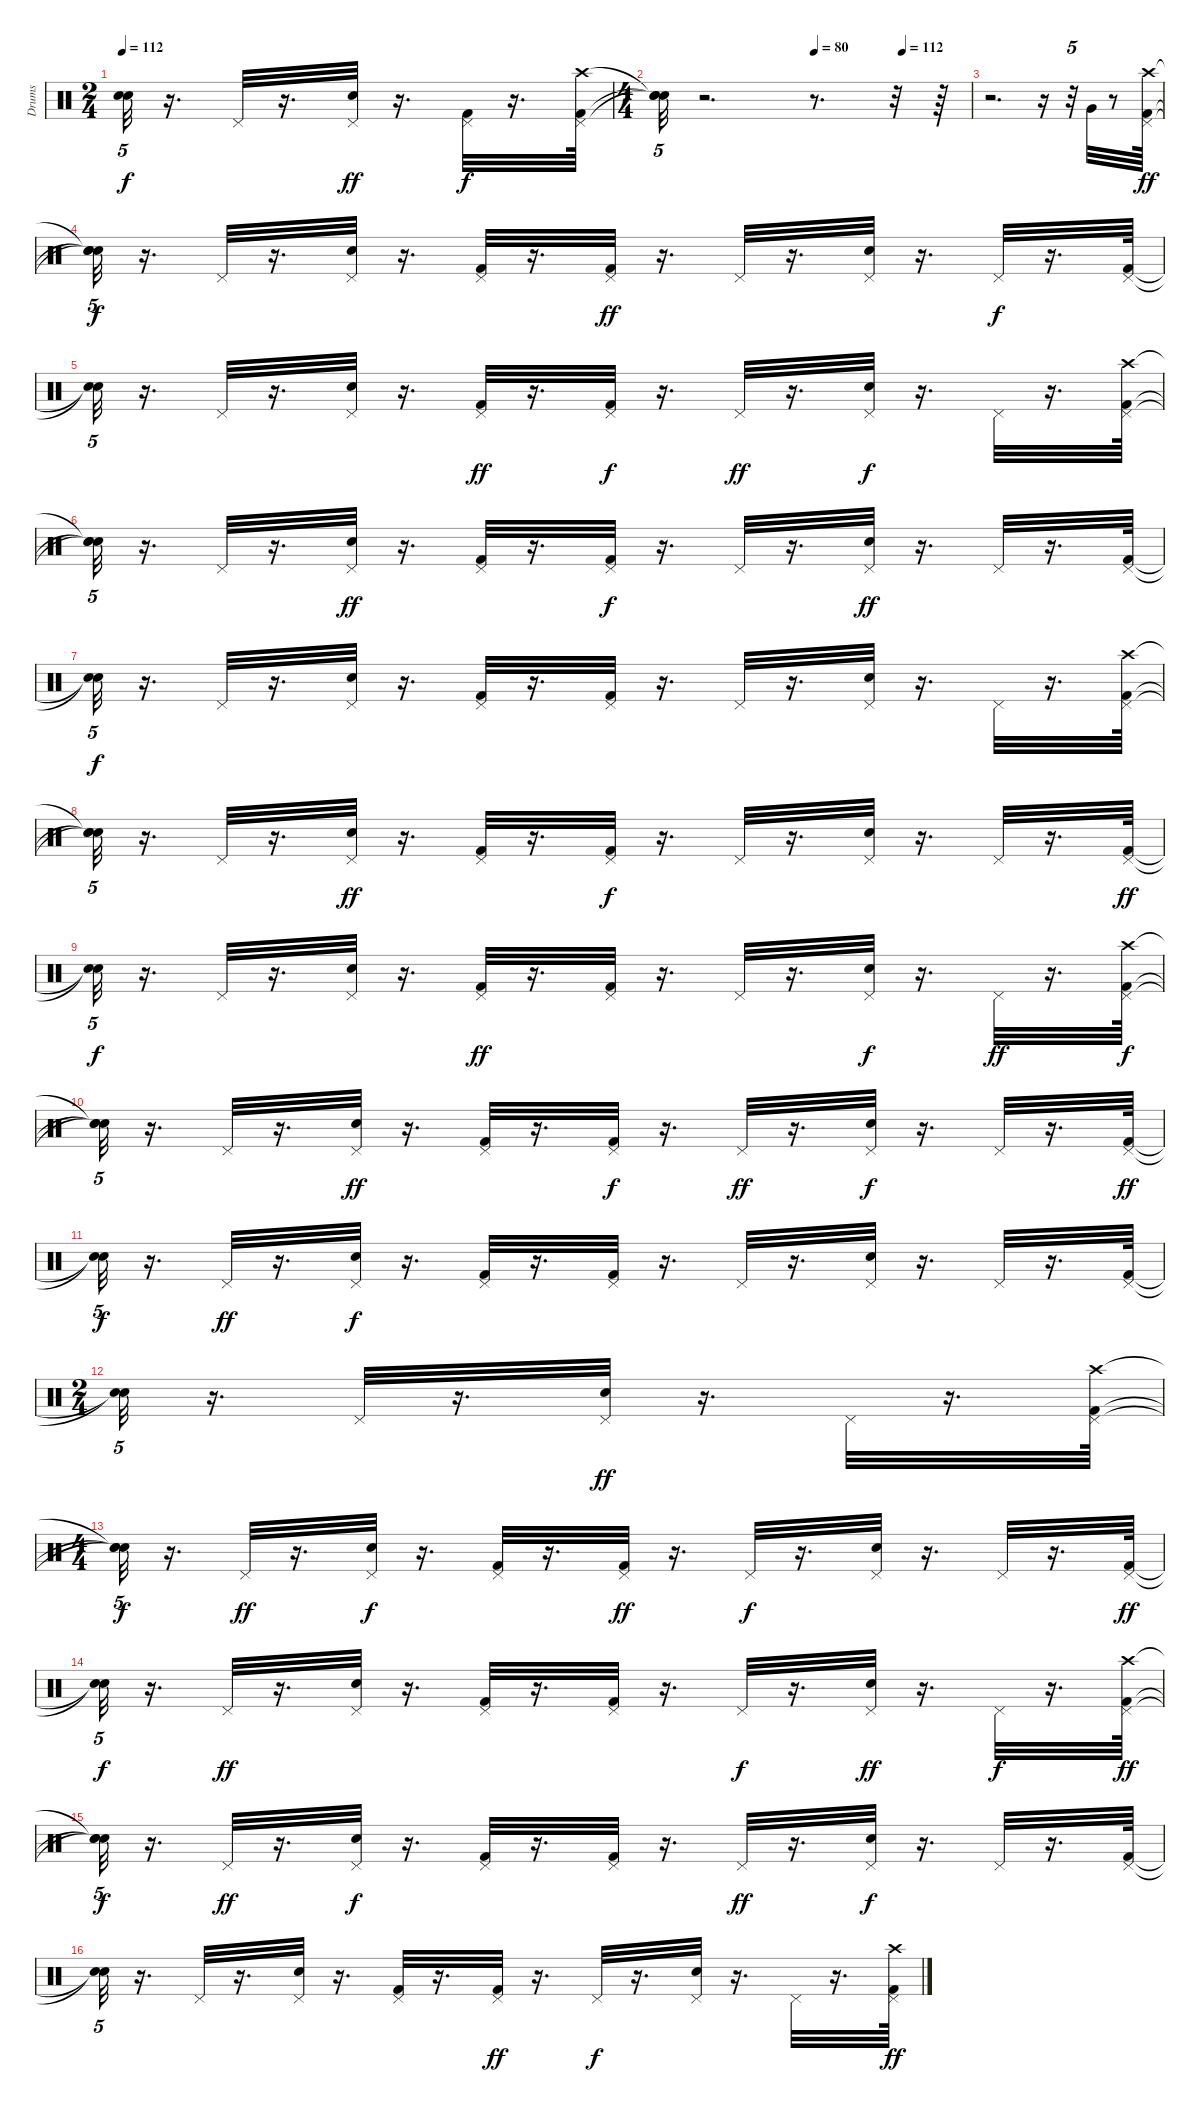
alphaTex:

\track ("Drums" "Drums") {instrument percussion}
\staff {score}
\articulation defaults
\ts (2 4)
\tempo 112
\clef neutral
\ks c
("Snare (hit)"{t} "Snare (hit)"{t}).32{tu (5 4) dy f} r.16{d} "Pedal Hi-Hat (hit)".32 r.16{d} ("Pedal Hi-Hat (hit)" "Snare (hit) 2").32{dy ff} r.16{d} ("Kick (hit) 2" "Pedal Hi-Hat (hit)").32{dy f} r.16{d} ("Kick (hit) 2" "Pedal Hi-Hat (hit)" "Crash high (hit)").64 |
\ts (4 4)
\tempo (80 0.5)
\tempo (112 0.78125)
("Snare (hit)"{t} "Snare (hit)"{t} "Snare (hit)"{t}).32{tu (5 4)} r.2{d} r.8{d} r.32 r.64 |
r.2{d} r.16 r.32{tu (5 4)} "Very Low Tom (hit)".32 r.8 ("Crash high (hit)" "Kick (hit) 2" "Pedal Hi-Hat (hit)").64{dy ff} |
("Snare (hit)"{t} "Snare (hit)"{t} "Snare (hit)"{t}).32{tu (5 4) dy f} r.16{d} "Pedal Hi-Hat (hit)".32 r.16{d} ("Pedal Hi-Hat (hit)" "Snare (hit) 2").32 r.16{d} ("Kick (hit) 2" "Pedal Hi-Hat (hit)").32 r.16{d} ("Kick (hit) 2" "Pedal Hi-Hat (hit)").32{dy ff} r.16{d} "Pedal Hi-Hat (hit)".32 r.16{d} ("Snare (hit) 2" "Pedal Hi-Hat (hit)").32 r.16{d} "Pedal Hi-Hat (hit)".32{dy f} r.16{d} ("Kick (hit) 2" "Pedal Hi-Hat (hit)").64 |
("Snare (hit)"{t} "Snare (hit)"{t}).32{tu (5 4)} r.16{d} "Pedal Hi-Hat (hit)".32 r.16{d} ("Snare (hit) 2" "Pedal Hi-Hat (hit)").32 r.16{d} ("Pedal Hi-Hat (hit)" "Kick (hit) 2").32{dy ff} r.16{d} ("Pedal Hi-Hat (hit)" "Kick (hit) 2").32{dy f} r.16{d} "Pedal Hi-Hat (hit)".32{dy ff} r.16{d} ("Snare (hit) 2" "Pedal Hi-Hat (hit)").32{dy f} r.16{d} "Pedal Hi-Hat (hit)".32 r.16{d} ("Pedal Hi-Hat (hit)" "Crash high (hit)" "Kick (hit) 2").64 |
("Snare (hit)"{t} "Snare (hit)"{t} "Snare (hit)"{t}).32{tu (5 4)} r.16{d} "Pedal Hi-Hat (hit)".32 r.16{d} ("Pedal Hi-Hat (hit)" "Snare (hit) 2").32{dy ff} r.16{d} ("Kick (hit) 2" "Pedal Hi-Hat (hit)").32 r.16{d} ("Pedal Hi-Hat (hit)" "Kick (hit) 2").32{dy f} r.16{d} "Pedal Hi-Hat (hit)".32 r.16{d} ("Pedal Hi-Hat (hit)" "Snare (hit) 2").32{dy ff} r.16{d} "Pedal Hi-Hat (hit)".32 r.16{d} ("Pedal Hi-Hat (hit)" "Kick (hit) 2").64 |
("Snare (hit)"{t} "Snare (hit)"{t}).32{tu (5 4) dy f} r.16{d} "Pedal Hi-Hat (hit)".32 r.16{d} ("Pedal Hi-Hat (hit)" "Snare (hit) 2").32 r.16{d} ("Pedal Hi-Hat (hit)" "Kick (hit) 2").32 r.16{d} ("Pedal Hi-Hat (hit)" "Kick (hit) 2").32 r.16{d} "Pedal Hi-Hat (hit)".32 r.16{d} ("Pedal Hi-Hat (hit)" "Snare (hit) 2").32 r.16{d} "Pedal Hi-Hat (hit)".32 r.16{d} ("Crash high (hit)" "Kick (hit) 2" "Pedal Hi-Hat (hit)").64 |
("Snare (hit)"{t} "Snare (hit)"{t} "Snare (hit)"{t}).32{tu (5 4)} r.16{d} "Pedal Hi-Hat (hit)".32 r.16{d} ("Pedal Hi-Hat (hit)" "Snare (hit) 2").32{dy ff} r.16{d} ("Pedal Hi-Hat (hit)" "Kick (hit) 2").32 r.16{d} ("Kick (hit) 2" "Pedal Hi-Hat (hit)").32{dy f} r.16{d} "Pedal Hi-Hat (hit)".32 r.16{d} ("Pedal Hi-Hat (hit)" "Snare (hit) 2").32 r.16{d} "Pedal Hi-Hat (hit)".32 r.16{d} ("Pedal Hi-Hat (hit)" "Kick (hit) 2").64{dy ff} |
("Snare (hit)"{t} "Snare (hit)"{t}).32{tu (5 4) dy f} r.16{d} "Pedal Hi-Hat (hit)".32 r.16{d} ("Snare (hit) 2" "Pedal Hi-Hat (hit)").32 r.16{d} ("Pedal Hi-Hat (hit)" "Kick (hit) 2").32{dy ff} r.16{d} ("Kick (hit) 2" "Pedal Hi-Hat (hit)").32 r.16{d} "Pedal Hi-Hat (hit)".32 r.16{d} ("Pedal Hi-Hat (hit)" "Snare (hit) 2").32{dy f} r.16{d} "Pedal Hi-Hat (hit)".32{dy ff} r.16{d} ("Kick (hit) 2" "Pedal Hi-Hat (hit)" "Crash high (hit)").64{dy f} |
("Snare (hit)"{t} "Snare (hit)"{t} "Snare (hit)"{t}).32{tu (5 4)} r.16{d} "Pedal Hi-Hat (hit)".32 r.16{d} ("Pedal Hi-Hat (hit)" "Snare (hit) 2").32{dy ff} r.16{d} ("Pedal Hi-Hat (hit)" "Kick (hit) 2").32 r.16{d} ("Kick (hit) 2" "Pedal Hi-Hat (hit)").32{dy f} r.16{d} "Pedal Hi-Hat (hit)".32{dy ff} r.16{d} ("Pedal Hi-Hat (hit)" "Snare (hit) 2").32{dy f} r.16{d} "Pedal Hi-Hat (hit)".32 r.16{d} ("Kick (hit) 2" "Pedal Hi-Hat (hit)").64{dy ff} |
("Snare (hit)"{t} "Snare (hit)"{t}).32{tu (5 4) dy f} r.16{d} "Pedal Hi-Hat (hit)".32{dy ff} r.16{d} ("Pedal Hi-Hat (hit)" "Snare (hit) 2").32{dy f} r.16{d} ("Pedal Hi-Hat (hit)" "Kick (hit) 2").32 r.16{d} ("Kick (hit) 2" "Pedal Hi-Hat (hit)").32 r.16{d} "Pedal Hi-Hat (hit)".32 r.16{d} ("Snare (hit) 2" "Pedal Hi-Hat (hit)").32 r.16{d} "Pedal Hi-Hat (hit)".32 r.16{d} ("Kick (hit) 2" "Pedal Hi-Hat (hit)").64 |
\ts (2 4)
("Snare (hit)"{t} "Snare (hit)"{t}).32{tu (5 4)} r.16{d} "Pedal Hi-Hat (hit)".32 r.16{d} ("Snare (hit) 2" "Pedal Hi-Hat (hit)").32{dy ff} r.16{d} "Pedal Hi-Hat (hit)".32 r.16{d} ("Kick (hit) 2" "Crash high (hit)" "Pedal Hi-Hat (hit)").64 |
\ts (4 4)
("Snare (hit)"{t} "Snare (hit)"{t} "Snare (hit)"{t}).32{tu (5 4) dy f} r.16{d} "Pedal Hi-Hat (hit)".32{dy ff} r.16{d} ("Pedal Hi-Hat (hit)" "Snare (hit) 2").32{dy f} r.16{d} ("Kick (hit) 2" "Pedal Hi-Hat (hit)").32 r.16{d} ("Pedal Hi-Hat (hit)" "Kick (hit) 2").32{dy ff} r.16{d} "Pedal Hi-Hat (hit)".32{dy f} r.16{d} ("Snare (hit) 2" "Pedal Hi-Hat (hit)").32 r.16{d} "Pedal Hi-Hat (hit)".32 r.16{d} ("Pedal Hi-Hat (hit)" "Kick (hit) 2").64{dy ff} |
("Snare (hit)"{t} "Snare (hit)"{t}).32{tu (5 4) dy f} r.16{d} "Pedal Hi-Hat (hit)".32{dy ff} r.16{d} ("Pedal Hi-Hat (hit)" "Snare (hit) 2").32 r.16{d} ("Pedal Hi-Hat (hit)" "Kick (hit) 2").32 r.16{d} ("Pedal Hi-Hat (hit)" "Kick (hit) 2").32 r.16{d} "Pedal Hi-Hat (hit)".32{dy f} r.16{d} ("Snare (hit) 2" "Pedal Hi-Hat (hit)").32{dy ff} r.16{d} "Pedal Hi-Hat (hit)".32{dy f} r.16{d} ("Kick (hit) 2" "Crash high (hit)" "Pedal Hi-Hat (hit)").64{dy ff} |
("Snare (hit)"{t} "Snare (hit)"{t} "Snare (hit)"{t}).32{tu (5 4) dy f} r.16{d} "Pedal Hi-Hat (hit)".32{dy ff} r.16{d} ("Pedal Hi-Hat (hit)" "Snare (hit) 2").32{dy f} r.16{d} ("Kick (hit) 2" "Pedal Hi-Hat (hit)").32 r.16{d} ("Pedal Hi-Hat (hit)" "Kick (hit) 2").32 r.16{d} "Pedal Hi-Hat (hit)".32{dy ff} r.16{d} ("Pedal Hi-Hat (hit)" "Snare (hit) 2").32{dy f} r.16{d} "Pedal Hi-Hat (hit)".32 r.16{d} ("Kick (hit) 2" "Pedal Hi-Hat (hit)").64 |
("Snare (hit)"{t} "Snare (hit)"{t}).32{tu (5 4)} r.16{d} "Pedal Hi-Hat (hit)".32 r.16{d} ("Pedal Hi-Hat (hit)" "Snare (hit) 2").32 r.16{d} ("Kick (hit) 2" "Pedal Hi-Hat (hit)").32 r.16{d} ("Pedal Hi-Hat (hit)" "Kick (hit) 2").32{dy ff} r.16{d} "Pedal Hi-Hat (hit)".32{dy f} r.16{d} ("Snare (hit) 2" "Pedal Hi-Hat (hit)").32 r.16{d} "Pedal Hi-Hat (hit)".32 r.16{d} ("Crash high (hit)" "Kick (hit) 2" "Pedal Hi-Hat (hit)").64{dy ff}
